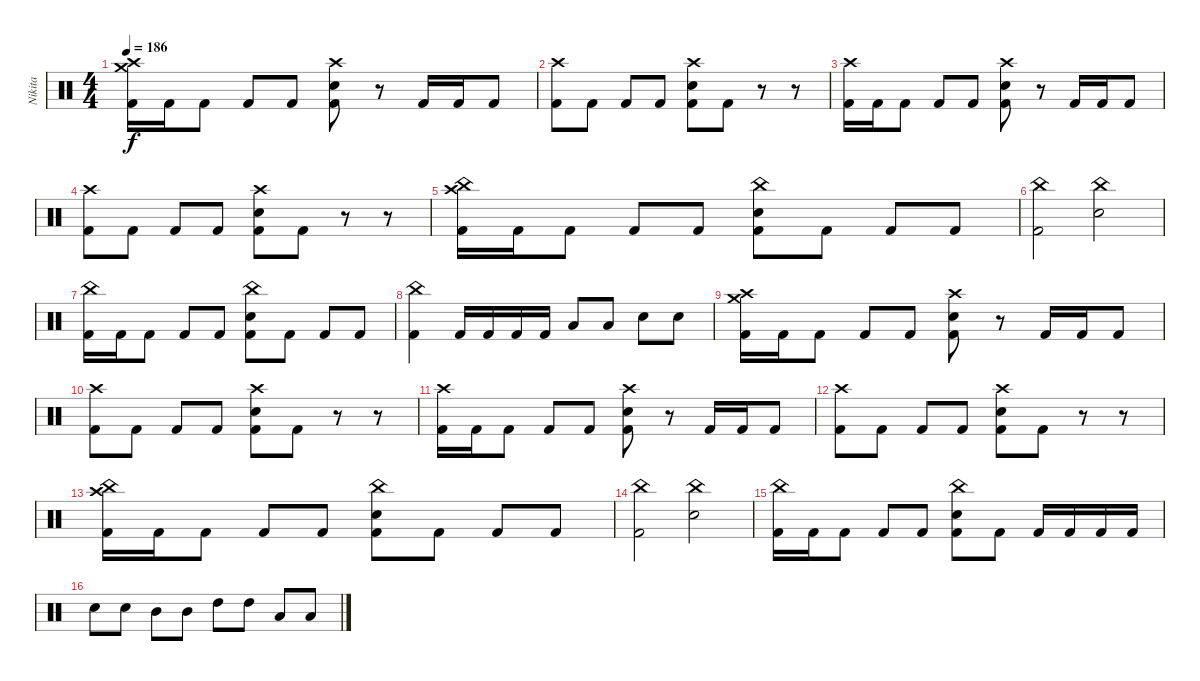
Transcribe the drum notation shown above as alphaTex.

\track ("Nikita" "Nikita") {instrument percussion}
\staff {score}
\articulation defaults
\ts (4 4)
\tempo 186
\clef neutral
\ks c
("Crash high (hit)" "Crash medium (hit)" "Kick (hit) 2").16{dy f} "Kick (hit) 2".16 "Kick (hit) 2".8 "Kick (hit) 2".8 "Kick (hit) 2".8 ("Crash high (hit)" "Electric Snare (hit)" "Kick (hit) 2").8 r.8 "Kick (hit) 2".16 "Kick (hit) 2".16 "Kick (hit) 2".8 |
("Crash high (hit)" "Kick (hit) 2").8 "Kick (hit) 2".8 "Kick (hit) 2".8 "Kick (hit) 2".8 ("Crash high (hit)" "Electric Snare (hit)" "Kick (hit) 2").8 "Kick (hit) 2".8 r.8 r.8 |
("Crash high (hit)" "Kick (hit) 2").16 "Kick (hit) 2".16 "Kick (hit) 2".8 "Kick (hit) 2".8 "Kick (hit) 2".8 ("Crash high (hit)" "Electric Snare (hit)" "Kick (hit) 2").8 r.8 "Kick (hit) 2".16 "Kick (hit) 2".16 "Kick (hit) 2".8 |
("Crash high (hit)" "Kick (hit) 2").8 "Kick (hit) 2".8 "Kick (hit) 2".8 "Kick (hit) 2".8 ("Crash high (hit)" "Electric Snare (hit)" "Kick (hit) 2").8 "Kick (hit) 2".8 r.8 r.8 |
("Crash high (hit)" "China (hit)" "Kick (hit) 2").16 "Kick (hit) 2".16 "Kick (hit) 2".8 "Kick (hit) 2".8 "Kick (hit) 2".8 ("China (hit)" "Electric Snare (hit)" "Kick (hit) 2").8 "Kick (hit) 2".8 "Kick (hit) 2".8 "Kick (hit) 2".8 |
("China (hit)" "Kick (hit) 2").2 ("China (hit)" "Electric Snare (hit)").2 |
("China (hit)" "Kick (hit) 2").16 "Kick (hit) 2".16 "Kick (hit) 2".8 "Kick (hit) 2".8 "Kick (hit) 2".8 ("China (hit)" "Electric Snare (hit)" "Kick (hit) 2").8 "Kick (hit) 2".8 "Kick (hit) 2".8 "Kick (hit) 2".8 |
("China (hit)" "Kick (hit) 2").4 "Kick (hit) 2".16 "Kick (hit) 2".16 "Kick (hit) 2".16 "Kick (hit) 2".16 "Low Tom (hit)".8 "Low Floor Tom (hit)".8 "Electric Snare (hit)".8 "Electric Snare (hit)".8 |
("Crash high (hit)" "Crash medium (hit)" "Kick (hit) 2").16 "Kick (hit) 2".16 "Kick (hit) 2".8 "Kick (hit) 2".8 "Kick (hit) 2".8 ("Crash high (hit)" "Electric Snare (hit)" "Kick (hit) 2").8 r.8 "Kick (hit) 2".16 "Kick (hit) 2".16 "Kick (hit) 2".8 |
("Crash high (hit)" "Kick (hit) 2").8 "Kick (hit) 2".8 "Kick (hit) 2".8 "Kick (hit) 2".8 ("Crash high (hit)" "Electric Snare (hit)" "Kick (hit) 2").8 "Kick (hit) 2".8 r.8 r.8 |
("Crash high (hit)" "Kick (hit) 2").16 "Kick (hit) 2".16 "Kick (hit) 2".8 "Kick (hit) 2".8 "Kick (hit) 2".8 ("Crash high (hit)" "Electric Snare (hit)" "Kick (hit) 2").8 r.8 "Kick (hit) 2".16 "Kick (hit) 2".16 "Kick (hit) 2".8 |
("Crash high (hit)" "Kick (hit) 2").8 "Kick (hit) 2".8 "Kick (hit) 2".8 "Kick (hit) 2".8 ("Crash high (hit)" "Electric Snare (hit)" "Kick (hit) 2").8 "Kick (hit) 2".8 r.8 r.8 |
("Crash high (hit)" "China (hit)" "Kick (hit) 2").16 "Kick (hit) 2".16 "Kick (hit) 2".8 "Kick (hit) 2".8 "Kick (hit) 2".8 ("China (hit)" "Electric Snare (hit)" "Kick (hit) 2").8 "Kick (hit) 2".8 "Kick (hit) 2".8 "Kick (hit) 2".8 |
("China (hit)" "Kick (hit) 2").2 ("China (hit)" "Electric Snare (hit)").2 |
("China (hit)" "Kick (hit) 2").16 "Kick (hit) 2".16 "Kick (hit) 2".8 "Kick (hit) 2".8 "Kick (hit) 2".8 ("China (hit)" "Electric Snare (hit)" "Kick (hit) 2").8 "Kick (hit) 2".8 "Kick (hit) 2".16 "Kick (hit) 2".16 "Kick (hit) 2".16 "Kick (hit) 2".16 |
"Electric Snare (hit)".8 "Electric Snare (hit)".8 "Mid Tom (hit)".8 "Mid Tom (hit)".8 "High Tom (hit)".8 "High Tom (hit)".8 "Low Tom (hit)".8 "Low Tom (hit)".8
